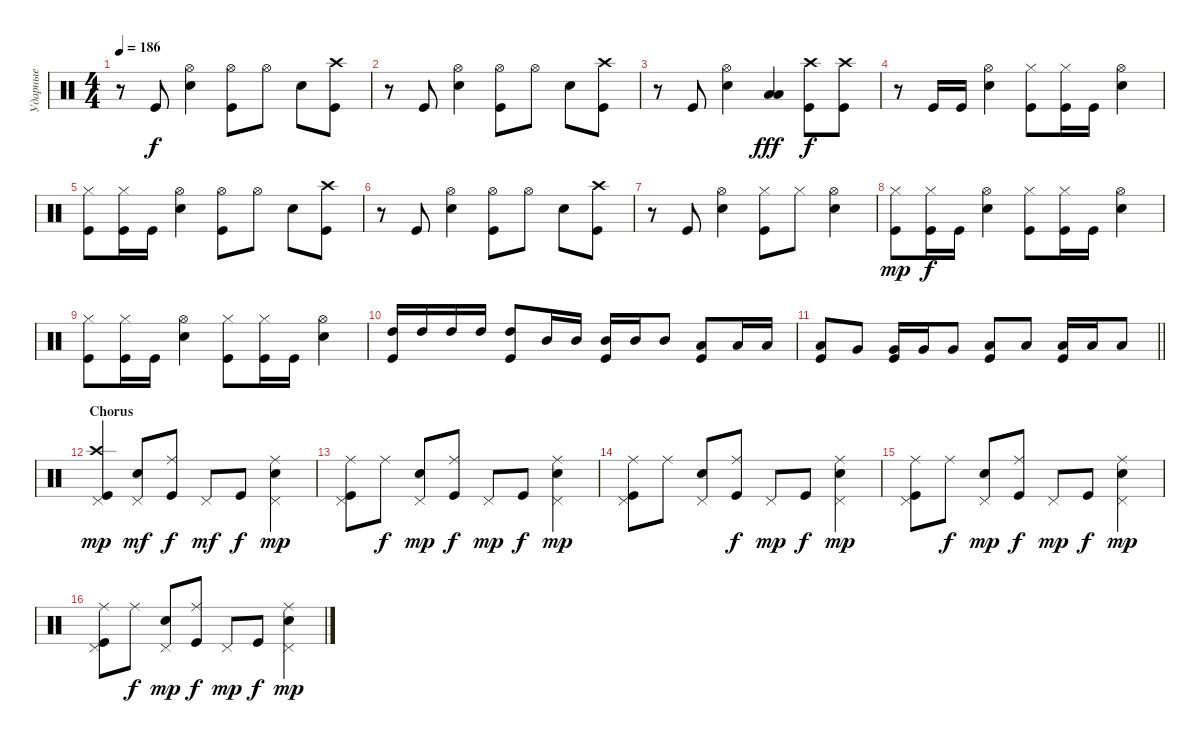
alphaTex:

\track ("Ударные" "Ударные") {instrument percussion}
\staff {score}
\articulation defaults
\ts (4 4)
\tempo 186
\clef neutral
\ks aminor
r.8{dy f} "Kick (hit)".8 ("Snare (hit) 2" "Hi-Hat (open)").4 ("Kick (hit)" "Hi-Hat (open)").8 "Hi-Hat (open)".8 "Snare (hit) 2".8 ("Kick (hit)" "Crash high (hit)").8 |
r.8 "Kick (hit)".8 ("Snare (hit) 2" "Hi-Hat (open)").4 ("Kick (hit)" "Hi-Hat (open)").8 "Hi-Hat (open)".8 "Snare (hit) 2".8 ("Kick (hit)" "Crash high (hit)").8 |
r.8 "Kick (hit)".8 ("Snare (hit) 2" "Hi-Hat (open)").4 ("Low Tom (hit)" "Low Tom (hit)").4{bd 480 dy fff} ("Kick (hit)" "Crash high (hit)").8{dy f} ("Kick (hit)" "Crash high (hit)").8 |
r.8 "Kick (hit)".16 "Kick (hit)".16 ("Snare (hit) 2" "Hi-Hat (open)").4 ("Kick (hit)" "Hi-Hat (closed)").8 ("Kick (hit)" "Hi-Hat (closed)").16 "Kick (hit)".16 ("Snare (hit) 2" "Hi-Hat (open)").4 |
("Kick (hit)" "Hi-Hat (closed)").8 ("Kick (hit)" "Hi-Hat (closed)").16 "Kick (hit)".16 ("Snare (hit) 2" "Hi-Hat (open)").4 ("Kick (hit)" "Hi-Hat (open)").8 "Hi-Hat (open)".8 "Snare (hit) 2".8 ("Kick (hit)" "Crash high (hit)").8 |
r.8 "Kick (hit)".8 ("Snare (hit) 2" "Hi-Hat (open)").4 ("Kick (hit)" "Hi-Hat (open)").8 "Hi-Hat (open)".8 "Snare (hit) 2".8 ("Kick (hit)" "Crash high (hit)").8 |
r.8 "Kick (hit)".8 ("Snare (hit) 2" "Hi-Hat (open)").4 ("Kick (hit)" "Hi-Hat (closed)").8 "Hi-Hat (closed)".8 ("Snare (hit) 2" "Hi-Hat (open)").4 |
("Kick (hit)" "Hi-Hat (closed)").8{dy mp} ("Kick (hit)" "Hi-Hat (closed)").16{dy f} "Kick (hit)".16 ("Snare (hit) 2" "Hi-Hat (open)").4 ("Kick (hit)" "Hi-Hat (closed)").8 ("Kick (hit)" "Hi-Hat (closed)").16 "Kick (hit)".16 ("Snare (hit) 2" "Hi-Hat (open)").4 |
("Kick (hit)" "Hi-Hat (closed)").8 ("Kick (hit)" "Hi-Hat (closed)").16 "Kick (hit)".16 ("Snare (hit) 2" "Hi-Hat (open)").4 ("Kick (hit)" "Hi-Hat (closed)").8 ("Kick (hit)" "Hi-Hat (closed)").16 "Kick (hit)".16 ("Snare (hit) 2" "Hi-Hat (open)").4 |
("High Tom (hit)" "Kick (hit)").16 "High Tom (hit)".16 "High Tom (hit)".16 "High Tom (hit)".16 ("High Tom (hit)" "Kick (hit)").8 "Mid Tom (hit)".16 "Mid Tom (hit)".16 ("Mid Tom (hit)" "Kick (hit)").16 "Mid Tom (hit)".16 "Mid Tom (hit)".8 ("Low Tom (hit)" "Kick (hit)").8 "Low Tom (hit)".16 "Low Tom (hit)".16 |
\barLineRight lightlight
("Low Tom (hit)" "Kick (hit)").8 "Very Low Tom (hit)".8 ("Very Low Tom (hit)" "Kick (hit)").16 "Very Low Tom (hit)".16 "Very Low Tom (hit)".8 ("Low Floor Tom (hit)" "Kick (hit)").8 "Low Floor Tom (hit)".8 ("Low Floor Tom (hit)" "Kick (hit)").16 "Low Floor Tom (hit)".16 "Low Floor Tom (hit)".8 |
\section ("" "Chorus")
("Kick (hit)" "Crash high (hit)" "Pedal Hi-Hat (hit)").4{dy mp} ("Snare (hit) 2" "Pedal Hi-Hat (hit)").8{dy mf} ("Kick (hit)" "Ride (middle)").8{dy f} "Pedal Hi-Hat (hit)".8{dy mf} "Kick (hit)".8{dy f} ("Snare (hit) 2" "Ride (middle)" "Pedal Hi-Hat (hit)").4{dy mp} |
("Pedal Hi-Hat (hit)" "Ride (middle)" "Kick (hit)").8 "Ride (middle)".8{dy f} ("Snare (hit) 2" "Pedal Hi-Hat (hit)").8{dy mp} ("Kick (hit)" "Ride (middle)").8{dy f} "Pedal Hi-Hat (hit)".8{dy mp} "Kick (hit)".8{dy f} ("Snare (hit) 2" "Ride (middle)" "Pedal Hi-Hat (hit)").4{dy mp} |
("Pedal Hi-Hat (hit)" "Ride (middle)" "Kick (hit)").8 "Ride (middle)".8 ("Snare (hit) 2" "Pedal Hi-Hat (hit)").8 ("Kick (hit)" "Ride (middle)").8{dy f} "Pedal Hi-Hat (hit)".8{dy mp} "Kick (hit)".8{dy f} ("Snare (hit) 2" "Ride (middle)" "Pedal Hi-Hat (hit)").4{dy mp} |
("Pedal Hi-Hat (hit)" "Ride (middle)" "Kick (hit)").8 "Ride (middle)".8{dy f} ("Snare (hit) 2" "Pedal Hi-Hat (hit)").8{dy mp} ("Kick (hit)" "Ride (middle)").8{dy f} "Pedal Hi-Hat (hit)".8{dy mp} "Kick (hit)".8{dy f} ("Snare (hit) 2" "Ride (middle)" "Pedal Hi-Hat (hit)").4{dy mp} |
("Pedal Hi-Hat (hit)" "Ride (middle)" "Kick (hit)").8 "Ride (middle)".8{dy f} ("Snare (hit) 2" "Pedal Hi-Hat (hit)").8{dy mp} ("Kick (hit)" "Ride (middle)").8{dy f} "Pedal Hi-Hat (hit)".8{dy mp} "Kick (hit)".8{dy f} ("Snare (hit) 2" "Ride (middle)" "Pedal Hi-Hat (hit)").4{dy mp}
